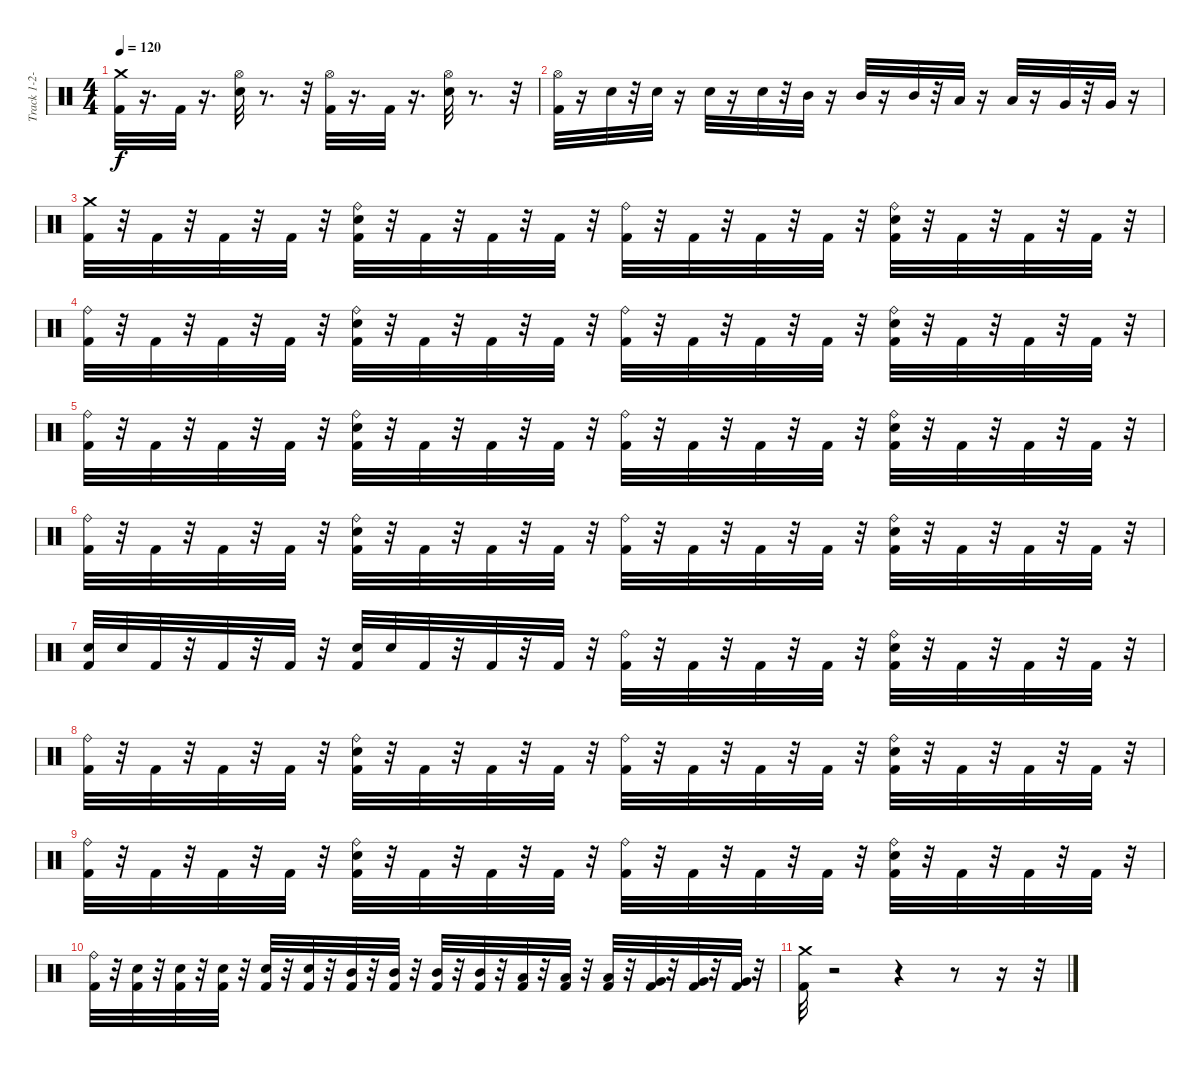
\track ("Track 1-2-3-4" "Track 1-2-") {instrument percussion}
\staff {score}
\articulation defaults
\ts (4 4)
\tempo 120
\clef neutral
\ks c
("Crash medium (hit)" "Kick (hit) 2").32{dy f} r.16{d} "Kick (hit) 2".32 r.16{d} ("Hi-Hat (open)" "Electric Snare (hit)").32 r.8{d} r.32 ("Hi-Hat (open)" "Kick (hit) 2").32 r.16{d} "Kick (hit) 2".32 r.16{d} ("Hi-Hat (open)" "Electric Snare (hit)").32 r.8{d} r.32 |
("Hi-Hat (open)" "Kick (hit) 2").32 r.16 "Electric Snare (hit)".32 r.32 "Electric Snare (hit)".32 r.16 "Electric Snare (hit)".32 r.16 "Electric Snare (hit)".32 r.32 "Mid Tom (hit)".32 r.16 "Mid Tom (hit)".32 r.16 "Mid Tom (hit)".32 r.32 "Low Tom (hit)".32 r.16 "Low Tom (hit)".32 r.16 "Very Low Tom (hit)".32 r.32 "Very Low Tom (hit)".32 r.16 |
("Crash medium (hit)" "Kick (hit) 2").32 r.32 "Kick (hit) 2".32 r.32 "Kick (hit) 2".32 r.32 "Kick (hit) 2".32 r.32 ("Ride (bell)" "Kick (hit) 2" "Electric Snare (hit)").32 r.32 "Kick (hit) 2".32 r.32 "Kick (hit) 2".32 r.32 "Kick (hit) 2".32 r.32 ("Ride (bell)" "Kick (hit) 2").32 r.32 "Kick (hit) 2".32 r.32 "Kick (hit) 2".32 r.32 "Kick (hit) 2".32 r.32 ("Ride (bell)" "Kick (hit) 2" "Electric Snare (hit)").32 r.32 "Kick (hit) 2".32 r.32 "Kick (hit) 2".32 r.32 "Kick (hit) 2".32 r.32 |
("Ride (bell)" "Kick (hit) 2").32 r.32 "Kick (hit) 2".32 r.32 "Kick (hit) 2".32 r.32 "Kick (hit) 2".32 r.32 ("Ride (bell)" "Kick (hit) 2" "Electric Snare (hit)").32 r.32 "Kick (hit) 2".32 r.32 "Kick (hit) 2".32 r.32 "Kick (hit) 2".32 r.32 ("Ride (bell)" "Kick (hit) 2").32 r.32 "Kick (hit) 2".32 r.32 "Kick (hit) 2".32 r.32 "Kick (hit) 2".32 r.32 ("Ride (bell)" "Kick (hit) 2" "Electric Snare (hit)").32 r.32 "Kick (hit) 2".32 r.32 "Kick (hit) 2".32 r.32 "Kick (hit) 2".32 r.32 |
("Ride (bell)" "Kick (hit) 2").32 r.32 "Kick (hit) 2".32 r.32 "Kick (hit) 2".32 r.32 "Kick (hit) 2".32 r.32 ("Ride (bell)" "Kick (hit) 2" "Electric Snare (hit)").32 r.32 "Kick (hit) 2".32 r.32 "Kick (hit) 2".32 r.32 "Kick (hit) 2".32 r.32 ("Ride (bell)" "Kick (hit) 2").32 r.32 "Kick (hit) 2".32 r.32 "Kick (hit) 2".32 r.32 "Kick (hit) 2".32 r.32 ("Ride (bell)" "Kick (hit) 2" "Electric Snare (hit)").32 r.32 "Kick (hit) 2".32 r.32 "Kick (hit) 2".32 r.32 "Kick (hit) 2".32 r.32 |
("Ride (bell)" "Kick (hit) 2").32 r.32 "Kick (hit) 2".32 r.32 "Kick (hit) 2".32 r.32 "Kick (hit) 2".32 r.32 ("Ride (bell)" "Kick (hit) 2" "Electric Snare (hit)").32 r.32 "Kick (hit) 2".32 r.32 "Kick (hit) 2".32 r.32 "Kick (hit) 2".32 r.32 ("Ride (bell)" "Kick (hit) 2").32 r.32 "Kick (hit) 2".32 r.32 "Kick (hit) 2".32 r.32 "Kick (hit) 2".32 r.32 ("Ride (bell)" "Kick (hit) 2" "Electric Snare (hit)").32 r.32 "Kick (hit) 2".32 r.32 "Kick (hit) 2".32 r.32 "Kick (hit) 2".32 r.32 |
("Kick (hit) 2" "Electric Snare (hit)").32 "Electric Snare (hit)".32 "Kick (hit) 2".32 r.32 "Kick (hit) 2".32 r.32 "Kick (hit) 2".32 r.32 ("Kick (hit) 2" "Electric Snare (hit)").32 "Electric Snare (hit)".32 "Kick (hit) 2".32 r.32 "Kick (hit) 2".32 r.32 "Kick (hit) 2".32 r.32 ("Ride (bell)" "Kick (hit) 2").32 r.32 "Kick (hit) 2".32 r.32 "Kick (hit) 2".32 r.32 "Kick (hit) 2".32 r.32 ("Ride (bell)" "Kick (hit) 2" "Electric Snare (hit)").32 r.32 "Kick (hit) 2".32 r.32 "Kick (hit) 2".32 r.32 "Kick (hit) 2".32 r.32 |
("Ride (bell)" "Kick (hit) 2").32 r.32 "Kick (hit) 2".32 r.32 "Kick (hit) 2".32 r.32 "Kick (hit) 2".32 r.32 ("Ride (bell)" "Kick (hit) 2" "Electric Snare (hit)").32 r.32 "Kick (hit) 2".32 r.32 "Kick (hit) 2".32 r.32 "Kick (hit) 2".32 r.32 ("Ride (bell)" "Kick (hit) 2").32 r.32 "Kick (hit) 2".32 r.32 "Kick (hit) 2".32 r.32 "Kick (hit) 2".32 r.32 ("Ride (bell)" "Kick (hit) 2" "Electric Snare (hit)").32 r.32 "Kick (hit) 2".32 r.32 "Kick (hit) 2".32 r.32 "Kick (hit) 2".32 r.32 |
("Ride (bell)" "Kick (hit) 2").32 r.32 "Kick (hit) 2".32 r.32 "Kick (hit) 2".32 r.32 "Kick (hit) 2".32 r.32 ("Ride (bell)" "Kick (hit) 2" "Electric Snare (hit)").32 r.32 "Kick (hit) 2".32 r.32 "Kick (hit) 2".32 r.32 "Kick (hit) 2".32 r.32 ("Ride (bell)" "Kick (hit) 2").32 r.32 "Kick (hit) 2".32 r.32 "Kick (hit) 2".32 r.32 "Kick (hit) 2".32 r.32 ("Ride (bell)" "Kick (hit) 2" "Electric Snare (hit)").32 r.32 "Kick (hit) 2".32 r.32 "Kick (hit) 2".32 r.32 "Kick (hit) 2".32 r.32 |
("Ride (bell)" "Kick (hit) 2").32 r.32 ("Kick (hit) 2" "Electric Snare (hit)").32 r.32 ("Kick (hit) 2" "Electric Snare (hit)").32 r.32 ("Kick (hit) 2" "Electric Snare (hit)").32 r.32 ("Kick (hit) 2" "Electric Snare (hit)").32 r.32 ("Kick (hit) 2" "Electric Snare (hit)").32 r.32 ("Kick (hit) 2" "Mid Tom (hit)").32 r.32 ("Kick (hit) 2" "Mid Tom (hit)").32 r.32 ("Kick (hit) 2" "Mid Tom (hit)").32 r.32 ("Kick (hit) 2" "Mid Tom (hit)").32 r.32 ("Kick (hit) 2" "Low Tom (hit)").32 r.32 ("Kick (hit) 2" "Low Tom (hit)").32 r.32 ("Kick (hit) 2" "Low Tom (hit)").32 r.32 ("Kick (hit) 2" "Very Low Tom (hit)").32 r.32 ("Kick (hit) 2" "Very Low Tom (hit)").32 r.32 ("Kick (hit) 2" "Very Low Tom (hit)").32 r.32 |
("Crash medium (hit)" "Kick (hit) 2").32 r.2 r.4 r.8 r.16 r.32
